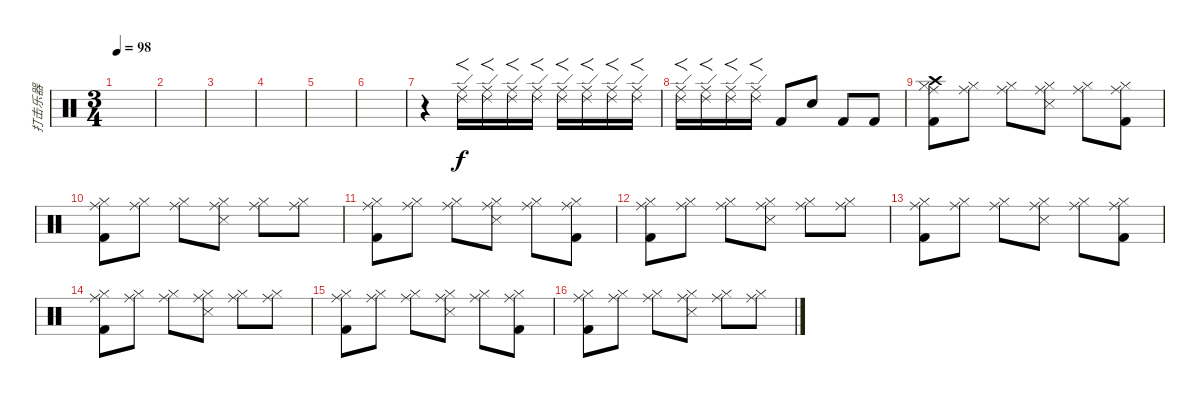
\track ("打击乐器" "打击乐器") {instrument percussion}
\staff {score}
\articulation defaults
\ts (3 4)
\tempo 98
\clef neutral
\ks c
|
|
|
|
|
|
r.4 ("Ride (edge) 2" "Ride (middle)").16{f} ("Ride (edge) 2" "Ride (middle)").16{f dy f} ("Ride (edge) 2" "Ride (middle)").16{f} ("Ride (edge) 2" "Ride (middle)").16{f} ("Ride (edge) 2" "Ride (middle)").16{f} ("Ride (edge) 2" "Ride (middle)").16{f} ("Ride (edge) 2" "Ride (middle)").16{f} ("Ride (edge) 2" "Ride (middle)").16{f} |
("Ride (edge) 2" "Ride (middle)").16{f} ("Ride (edge) 2" "Ride (middle)").16{f} ("Ride (edge) 2" "Ride (middle)").16{f} ("Ride (edge) 2" "Ride (middle)").16{f} "Kick (hit) 2".8 "Snare (hit) 2".8 "Kick (hit) 2".8 "Kick (hit) 2".8 |
("Kick (hit) 2" "Crash high (hit)" "Hi-Hat (closed)" "Ride (middle)").8 ("Hi-Hat (closed)" "Ride (middle)").8 ("Hi-Hat (closed)" "Ride (middle)").8 ("Snare (side stick) 3" "Hi-Hat (closed)" "Ride (middle)").8 ("Hi-Hat (closed)" "Ride (middle)").8 ("Kick (hit) 2" "Hi-Hat (closed)" "Ride (middle)").8 |
("Kick (hit) 2" "Hi-Hat (closed)" "Ride (middle)").8 ("Hi-Hat (closed)" "Ride (middle)").8 ("Hi-Hat (closed)" "Ride (middle)").8 ("Snare (side stick) 3" "Hi-Hat (closed)" "Ride (middle)").8 ("Hi-Hat (closed)" "Ride (middle)").8 ("Hi-Hat (closed)" "Ride (middle)").8 |
("Kick (hit) 2" "Hi-Hat (closed)" "Ride (middle)").8 ("Hi-Hat (closed)" "Ride (middle)").8 ("Hi-Hat (closed)" "Ride (middle)").8 ("Snare (side stick) 3" "Hi-Hat (closed)" "Ride (middle)").8 ("Hi-Hat (closed)" "Ride (middle)").8 ("Kick (hit) 2" "Hi-Hat (closed)" "Ride (middle)").8 |
("Kick (hit) 2" "Hi-Hat (closed)" "Ride (middle)").8 ("Hi-Hat (closed)" "Ride (middle)").8 ("Hi-Hat (closed)" "Ride (middle)").8 ("Snare (side stick) 3" "Hi-Hat (closed)" "Ride (middle)").8 ("Hi-Hat (closed)" "Ride (middle)").8 ("Hi-Hat (closed)" "Ride (middle)").8 |
("Kick (hit) 2" "Hi-Hat (closed)" "Ride (middle)").8 ("Hi-Hat (closed)" "Ride (middle)").8 ("Hi-Hat (closed)" "Ride (middle)").8 ("Snare (side stick) 3" "Hi-Hat (closed)" "Ride (middle)").8 ("Hi-Hat (closed)" "Ride (middle)").8 ("Kick (hit) 2" "Hi-Hat (closed)" "Ride (middle)").8 |
("Kick (hit) 2" "Hi-Hat (closed)" "Ride (middle)").8 ("Hi-Hat (closed)" "Ride (middle)").8 ("Hi-Hat (closed)" "Ride (middle)").8 ("Snare (side stick) 3" "Hi-Hat (closed)" "Ride (middle)").8 ("Hi-Hat (closed)" "Ride (middle)").8 ("Hi-Hat (closed)" "Ride (middle)").8 |
("Kick (hit) 2" "Hi-Hat (closed)" "Ride (middle)").8 ("Hi-Hat (closed)" "Ride (middle)").8 ("Hi-Hat (closed)" "Ride (middle)").8 ("Snare (side stick) 3" "Hi-Hat (closed)" "Ride (middle)").8 ("Hi-Hat (closed)" "Ride (middle)").8 ("Kick (hit) 2" "Hi-Hat (closed)" "Ride (middle)").8 |
("Kick (hit) 2" "Hi-Hat (closed)" "Ride (middle)").8 ("Hi-Hat (closed)" "Ride (middle)").8 ("Hi-Hat (closed)" "Ride (middle)").8 ("Snare (side stick) 3" "Hi-Hat (closed)" "Ride (middle)").8 ("Hi-Hat (closed)" "Ride (middle)").8 ("Hi-Hat (closed)" "Ride (middle)").8
